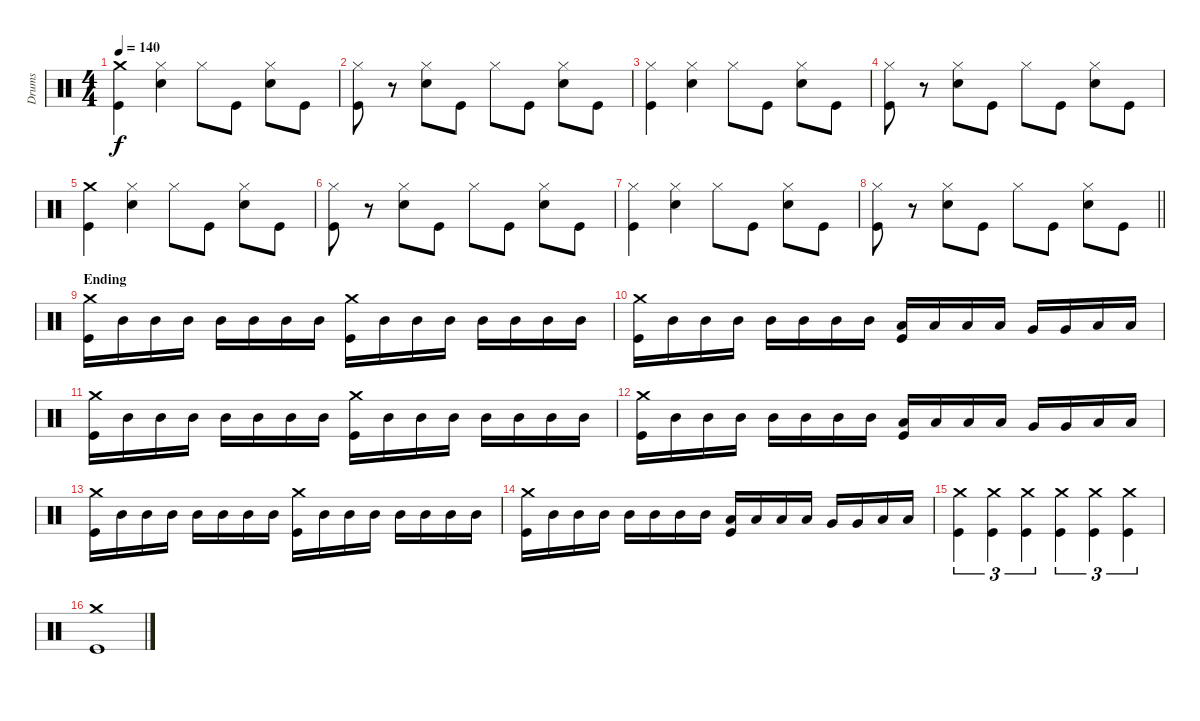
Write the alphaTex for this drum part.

\track ("Drums" "Drums") {instrument percussion}
\staff {score}
\articulation defaults
\ts (4 4)
\tempo 140
\clef neutral
\ks c
("Crash medium (hit)" "Kick (hit)").4{dy f} ("Hi-Hat (closed)" "Snare (hit) 2").4 "Hi-Hat (closed)".8 "Kick (hit)".8 ("Hi-Hat (closed)" "Snare (hit) 2").8 "Kick (hit)".8 |
("Hi-Hat (closed)" "Kick (hit)").8 r.8 ("Hi-Hat (closed)" "Snare (hit) 2").8 "Kick (hit)".8 "Hi-Hat (closed)".8 "Kick (hit)".8 ("Hi-Hat (closed)" "Snare (hit) 2").8 "Kick (hit)".8 |
("Hi-Hat (closed)" "Kick (hit)").4 ("Hi-Hat (closed)" "Snare (hit) 2").4 "Hi-Hat (closed)".8 "Kick (hit)".8 ("Hi-Hat (closed)" "Snare (hit) 2").8 "Kick (hit)".8 |
("Hi-Hat (closed)" "Kick (hit)").8 r.8 ("Hi-Hat (closed)" "Snare (hit) 2").8 "Kick (hit)".8 "Hi-Hat (closed)".8 "Kick (hit)".8 ("Hi-Hat (closed)" "Snare (hit) 2").8 "Kick (hit)".8 |
("Crash medium (hit)" "Kick (hit)").4 ("Hi-Hat (closed)" "Snare (hit) 2").4 "Hi-Hat (closed)".8 "Kick (hit)".8 ("Hi-Hat (closed)" "Snare (hit) 2").8 "Kick (hit)".8 |
("Hi-Hat (closed)" "Kick (hit)").8 r.8 ("Hi-Hat (closed)" "Snare (hit) 2").8 "Kick (hit)".8 "Hi-Hat (closed)".8 "Kick (hit)".8 ("Hi-Hat (closed)" "Snare (hit) 2").8 "Kick (hit)".8 |
("Hi-Hat (closed)" "Kick (hit)").4 ("Hi-Hat (closed)" "Snare (hit) 2").4 "Hi-Hat (closed)".8 "Kick (hit)".8 ("Hi-Hat (closed)" "Snare (hit) 2").8 "Kick (hit)".8 |
\barLineRight lightlight
("Hi-Hat (closed)" "Kick (hit)").8 r.8 ("Hi-Hat (closed)" "Snare (hit) 2").8 "Kick (hit)".8 "Hi-Hat (closed)".8 "Kick (hit)".8 ("Hi-Hat (closed)" "Snare (hit) 2").8 "Kick (hit)".8 |
\section ("" "Ending")
("Crash medium (hit)" "Kick (hit)").16 "Mid Tom (hit)".16 "Mid Tom (hit)".16 "Mid Tom (hit)".16 "Mid Tom (hit)".16 "Mid Tom (hit)".16 "Mid Tom (hit)".16 "Mid Tom (hit)".16 ("Crash medium (hit)" "Kick (hit)").16 "Mid Tom (hit)".16 "Mid Tom (hit)".16 "Mid Tom (hit)".16 "Mid Tom (hit)".16 "Mid Tom (hit)".16 "Mid Tom (hit)".16 "Mid Tom (hit)".16 |
("Crash medium (hit)" "Kick (hit)").16 "Mid Tom (hit)".16 "Mid Tom (hit)".16 "Mid Tom (hit)".16 "Mid Tom (hit)".16 "Mid Tom (hit)".16 "Mid Tom (hit)".16 "Mid Tom (hit)".16 ("Low Tom (hit)" "Kick (hit)").16 "Low Tom (hit)".16 "Low Tom (hit)".16 "Low Tom (hit)".16 "Very Low Tom (hit)".16 "Very Low Tom (hit)".16 "Low Floor Tom (hit)".16 "Low Floor Tom (hit)".16 |
("Crash medium (hit)" "Kick (hit)").16 "Mid Tom (hit)".16 "Mid Tom (hit)".16 "Mid Tom (hit)".16 "Mid Tom (hit)".16 "Mid Tom (hit)".16 "Mid Tom (hit)".16 "Mid Tom (hit)".16 ("Crash medium (hit)" "Kick (hit)").16 "Mid Tom (hit)".16 "Mid Tom (hit)".16 "Mid Tom (hit)".16 "Mid Tom (hit)".16 "Mid Tom (hit)".16 "Mid Tom (hit)".16 "Mid Tom (hit)".16 |
("Crash medium (hit)" "Kick (hit)").16 "Mid Tom (hit)".16 "Mid Tom (hit)".16 "Mid Tom (hit)".16 "Mid Tom (hit)".16 "Mid Tom (hit)".16 "Mid Tom (hit)".16 "Mid Tom (hit)".16 ("Low Tom (hit)" "Kick (hit)").16 "Low Tom (hit)".16 "Low Tom (hit)".16 "Low Tom (hit)".16 "Very Low Tom (hit)".16 "Very Low Tom (hit)".16 "Low Floor Tom (hit)".16 "Low Floor Tom (hit)".16 |
("Crash medium (hit)" "Kick (hit)").16 "Mid Tom (hit)".16 "Mid Tom (hit)".16 "Mid Tom (hit)".16 "Mid Tom (hit)".16 "Mid Tom (hit)".16 "Mid Tom (hit)".16 "Mid Tom (hit)".16 ("Crash medium (hit)" "Kick (hit)").16 "Mid Tom (hit)".16 "Mid Tom (hit)".16 "Mid Tom (hit)".16 "Mid Tom (hit)".16 "Mid Tom (hit)".16 "Mid Tom (hit)".16 "Mid Tom (hit)".16 |
("Crash medium (hit)" "Kick (hit)").16 "Mid Tom (hit)".16 "Mid Tom (hit)".16 "Mid Tom (hit)".16 "Mid Tom (hit)".16 "Mid Tom (hit)".16 "Mid Tom (hit)".16 "Mid Tom (hit)".16 ("Low Tom (hit)" "Kick (hit)").16 "Low Tom (hit)".16 "Low Tom (hit)".16 "Low Tom (hit)".16 "Very Low Tom (hit)".16 "Very Low Tom (hit)".16 "Low Floor Tom (hit)".16 "Low Floor Tom (hit)".16 |
("Crash medium (hit)" "Kick (hit)").4{tu (3 2)} ("Crash medium (hit)" "Kick (hit)").4{tu (3 2)} ("Crash medium (hit)" "Kick (hit)").4{tu (3 2)} ("Crash medium (hit)" "Kick (hit)").4{tu (3 2)} ("Crash medium (hit)" "Kick (hit)").4{tu (3 2)} ("Crash medium (hit)" "Kick (hit)").4{tu (3 2)} |
("Crash medium (hit)" "Kick (hit)").1
